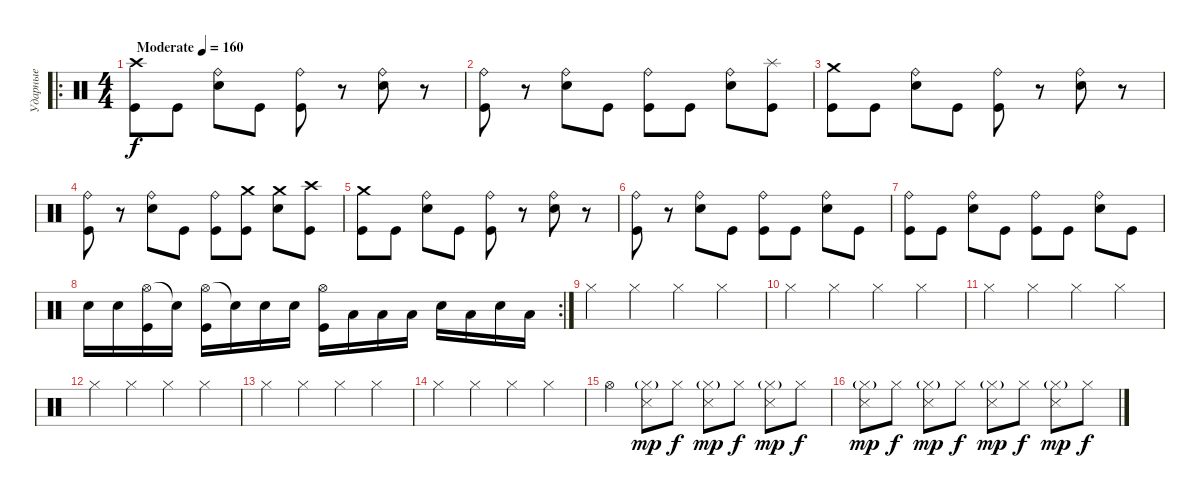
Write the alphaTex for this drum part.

\track ("Ударные" "Ударные") {instrument percussion}
\staff {score}
\articulation defaults
\ro
\ts (4 4)
\tempo (160 "Moderate")
\clef neutral
\ks c
("Crash high (hit)" "Kick (hit)").8{dy f} "Kick (hit)".8 ("Ride (bell)" "Electric Snare (hit)").8 "Kick (hit)".8 ("Ride (bell)" "Kick (hit)").8 r.8 ("Ride (bell)" "Electric Snare (hit)").8 r.8 |
("Ride (bell)" "Kick (hit)").8 r.8 ("Ride (bell)" "Electric Snare (hit)").8 "Kick (hit)".8 ("Ride (bell)" "Kick (hit)").8 "Kick (hit)".8 ("Ride (bell)" "Electric Snare (hit)").8 ("Splash (hit)" "Kick (hit)").8 |
("Crash medium (hit)" "Kick (hit)").8 "Kick (hit)".8 ("Ride (bell)" "Electric Snare (hit)").8 "Kick (hit)".8 ("Ride (bell)" "Kick (hit)").8 r.8 ("Ride (bell)" "Electric Snare (hit)").8 r.8 |
("Ride (bell)" "Kick (hit)").8 r.8 ("Ride (bell)" "Electric Snare (hit)").8 "Kick (hit)".8 ("Ride (bell)" "Kick (hit)").8 ("Crash medium (hit)" "Kick (hit)").8 ("Crash medium (hit)" "Electric Snare (hit)").8 ("Crash high (hit)" "Kick (hit)").8 |
("Crash medium (hit)" "Kick (hit)").8 "Kick (hit)".8 ("Ride (bell)" "Electric Snare (hit)").8 "Kick (hit)".8 ("Ride (bell)" "Kick (hit)").8 r.8 ("Ride (bell)" "Electric Snare (hit)").8 r.8 |
("Ride (bell)" "Kick (hit)").8 r.8 ("Ride (bell)" "Electric Snare (hit)").8 "Kick (hit)".8 ("Ride (bell)" "Kick (hit)").8 "Kick (hit)".8 ("Ride (bell)" "Electric Snare (hit)").8 "Kick (hit)".8 |
("Ride (bell)" "Kick (hit)").8 "Kick (hit)".8 ("Ride (bell)" "Electric Snare (hit)").8 "Kick (hit)".8 ("Ride (bell)" "Kick (hit)").8 "Kick (hit)".8 ("Ride (bell)" "Electric Snare (hit)").8 "Kick (hit)".8 |
\rc 2 "Electric Snare (hit)".16 "Electric Snare (hit)".16
("Hi-Hat (open)" "Kick (hit)").16 "Snare (hit)"{t}.16 ("Hi-Hat (open)" "Kick (hit)").16 "Snare (hit)"{t}.16 "Electric Snare (hit)".16 "Electric Snare (hit)".16 ("Hi-Hat (open)" "Kick (hit)").16 "Low Tom (hit)".16 "Low Tom (hit)".16 "Low Tom (hit)".16 "Electric Snare (hit)".16 "Low Tom (hit)".16 "Electric Snare (hit)".16 "Low Tom (hit)".16 |
"Hi-Hat (closed)".4 "Hi-Hat (closed)".4 "Hi-Hat (closed)".4 "Hi-Hat (closed)".4 |
"Hi-Hat (closed)".4 "Hi-Hat (closed)".4 "Hi-Hat (closed)".4 "Hi-Hat (closed)".4 |
"Hi-Hat (closed)".4 "Hi-Hat (closed)".4 "Hi-Hat (closed)".4 "Hi-Hat (closed)".4 |
"Hi-Hat (closed)".4 "Hi-Hat (closed)".4 "Hi-Hat (closed)".4 "Hi-Hat (closed)".4 |
"Hi-Hat (closed)".4 "Hi-Hat (closed)".4 "Hi-Hat (closed)".4 "Hi-Hat (closed)".4 |
"Hi-Hat (closed)".4 "Hi-Hat (closed)".4 "Hi-Hat (closed)".4 "Hi-Hat (closed)".4 |
"Hi-Hat (open)".4 ("Hi-Hat (closed)"{g} "Snare (side stick) 3").8{dy mp} "Hi-Hat (closed)".8{dy f} ("Hi-Hat (closed)"{g} "Snare (side stick) 3").8{dy mp} "Hi-Hat (closed)".8{dy f} ("Hi-Hat (closed)"{g} "Snare (side stick) 3").8{dy mp} "Hi-Hat (closed)".8{dy f} |
("Hi-Hat (closed)"{g} "Snare (side stick) 3").8{dy mp} "Hi-Hat (closed)".8{dy f} ("Hi-Hat (closed)"{g} "Snare (side stick) 3").8{dy mp} "Hi-Hat (closed)".8{dy f} ("Hi-Hat (closed)"{g} "Snare (side stick) 3").8{dy mp} "Hi-Hat (closed)".8{dy f} ("Hi-Hat (closed)"{g} "Snare (side stick) 3").8{dy mp} "Hi-Hat (closed)".8{dy f}
